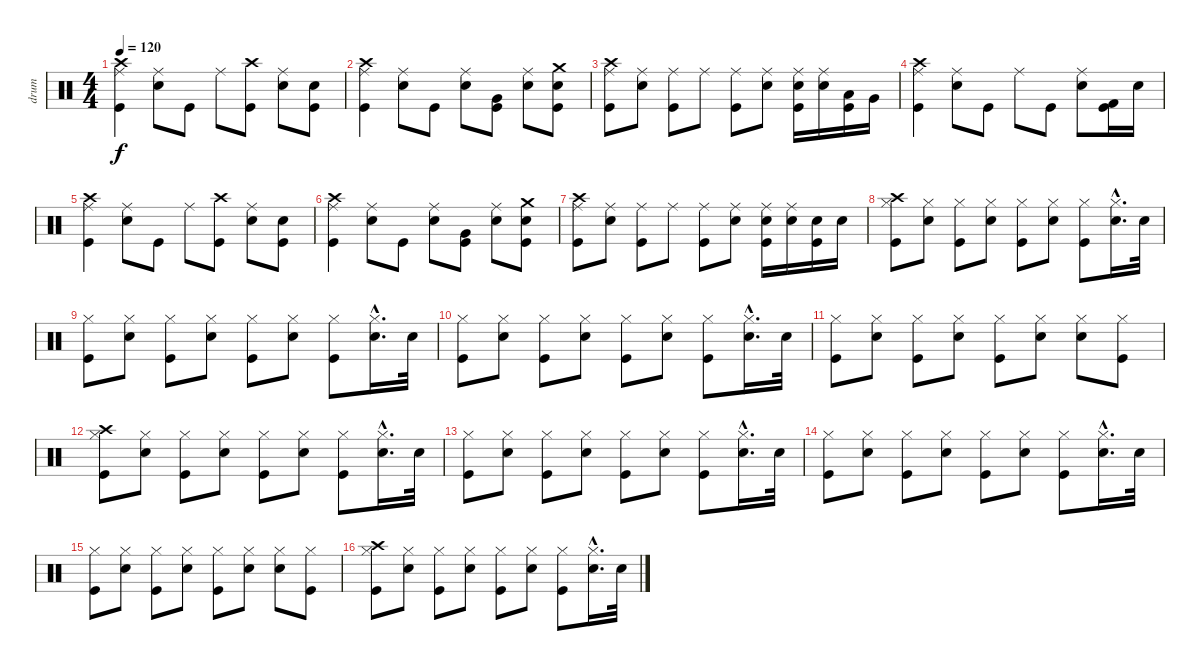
\track ("drum " "drum ") {instrument percussion}
\staff {score}
\articulation defaults
\ts (4 4)
\tempo 120
\clef neutral
\ks c
("Crash high (hit)" "Ride (middle)" "Kick (hit)").4{dy f} ("Ride (middle)" "Snare (hit) 2").8 "Kick (hit)".8 "Ride (middle)".8 ("Crash high (hit)" "Kick (hit)").8 ("Ride (middle)" "Snare (hit) 2").8 ("Snare (hit) 2" "Kick (hit)").8 |
("Crash high (hit)" "Ride (middle)" "Kick (hit)").4 ("Ride (middle)" "Snare (hit) 2").8 "Kick (hit)".8 ("Ride (middle)" "Snare (hit) 2").8 ("Very Low Tom (hit)" "Kick (hit)").8 ("Ride (middle)" "Snare (hit) 2").8 ("Crash medium (hit)" "Snare (hit) 2" "Kick (hit)").8 |
("Crash high (hit)" "Ride (middle)" "Kick (hit)").8 ("Ride (middle)" "Snare (hit) 2").8 ("Ride (middle)" "Kick (hit)").8 "Ride (middle)".8 ("Ride (middle)" "Kick (hit)").8 ("Ride (middle)" "Snare (hit) 2").8 ("Ride (middle)" "Snare (hit) 2" "Kick (hit)").16 ("Ride (middle)" "Snare (hit) 2").16 ("Low Tom (hit)" "Kick (hit)").16 "Very Low Tom (hit)".16 |
("Crash high (hit)" "Ride (middle)" "Kick (hit)").4 ("Ride (middle)" "Snare (hit) 2").8 "Kick (hit)".8 "Ride (middle)".8 "Kick (hit)".8 ("Ride (middle)" "Snare (hit) 2").8 ("Kick (hit) 2" "Kick (hit)").16 "Snare (hit) 2".16 |
("Crash high (hit)" "Ride (middle)" "Kick (hit)").4 ("Ride (middle)" "Snare (hit) 2").8 "Kick (hit)".8 "Ride (middle)".8 ("Crash high (hit)" "Kick (hit)").8 ("Ride (middle)" "Snare (hit) 2").8 ("Snare (hit) 2" "Kick (hit)").8 |
("Crash high (hit)" "Ride (middle)" "Kick (hit)").4 ("Ride (middle)" "Snare (hit) 2").8 "Kick (hit)".8 ("Ride (middle)" "Snare (hit) 2").8 ("Very Low Tom (hit)" "Kick (hit)").8 ("Ride (middle)" "Snare (hit) 2").8 ("Crash medium (hit)" "Snare (hit) 2" "Kick (hit)").8 |
("Crash high (hit)" "Ride (middle)" "Kick (hit)").8 ("Ride (middle)" "Snare (hit) 2").8 ("Ride (middle)" "Kick (hit)").8 "Ride (middle)".8 ("Ride (middle)" "Kick (hit)").8 ("Ride (middle)" "Snare (hit) 2").8 ("Ride (middle)" "Snare (hit) 2" "Kick (hit)").16 ("Ride (middle)" "Snare (hit) 2").16 ("Snare (hit) 2" "Kick (hit)").16 "Snare (hit) 2".16 |
("Crash high (hit)" "Hi-Hat (closed)" "Kick (hit)").8 ("Hi-Hat (closed)" "Snare (hit) 2").8 ("Hi-Hat (closed)" "Kick (hit)").8 ("Hi-Hat (closed)" "Snare (hit) 2").8 ("Hi-Hat (closed)" "Kick (hit)").8 ("Hi-Hat (closed)" "Snare (hit) 2").8 ("Hi-Hat (closed)" "Kick (hit)").8 ("Hi-Hat (closed)"{hac} "Snare (hit) 2"{hac}).16{d} "Snare (hit) 2".32 |
("Hi-Hat (closed)" "Kick (hit)").8 ("Hi-Hat (closed)" "Snare (hit) 2").8 ("Hi-Hat (closed)" "Kick (hit)").8 ("Hi-Hat (closed)" "Snare (hit) 2").8 ("Hi-Hat (closed)" "Kick (hit)").8 ("Hi-Hat (closed)" "Snare (hit) 2").8 ("Hi-Hat (closed)" "Kick (hit)").8 ("Hi-Hat (closed)"{hac} "Snare (hit) 2"{hac}).16{d} "Snare (hit) 2".32 |
("Hi-Hat (closed)" "Kick (hit)").8 ("Hi-Hat (closed)" "Snare (hit) 2").8 ("Hi-Hat (closed)" "Kick (hit)").8 ("Hi-Hat (closed)" "Snare (hit) 2").8 ("Hi-Hat (closed)" "Kick (hit)").8 ("Hi-Hat (closed)" "Snare (hit) 2").8 ("Hi-Hat (closed)" "Kick (hit)").8 ("Hi-Hat (closed)"{hac} "Snare (hit) 2"{hac}).16{d} "Snare (hit) 2".32 |
("Hi-Hat (closed)" "Kick (hit)").8 ("Hi-Hat (closed)" "Snare (hit) 2").8 ("Hi-Hat (closed)" "Kick (hit)").8 ("Hi-Hat (closed)" "Snare (hit) 2").8 ("Hi-Hat (closed)" "Kick (hit)").8 ("Hi-Hat (closed)" "Snare (hit) 2").8 ("Hi-Hat (closed)" "Snare (hit) 2").8 ("Hi-Hat (closed)" "Kick (hit)").8 |
("Crash high (hit)" "Hi-Hat (closed)" "Kick (hit)").8 ("Hi-Hat (closed)" "Snare (hit) 2").8 ("Hi-Hat (closed)" "Kick (hit)").8 ("Hi-Hat (closed)" "Snare (hit) 2").8 ("Hi-Hat (closed)" "Kick (hit)").8 ("Hi-Hat (closed)" "Snare (hit) 2").8 ("Hi-Hat (closed)" "Kick (hit)").8 ("Hi-Hat (closed)"{hac} "Snare (hit) 2"{hac}).16{d} "Snare (hit) 2".32 |
("Hi-Hat (closed)" "Kick (hit)").8 ("Hi-Hat (closed)" "Snare (hit) 2").8 ("Hi-Hat (closed)" "Kick (hit)").8 ("Hi-Hat (closed)" "Snare (hit) 2").8 ("Hi-Hat (closed)" "Kick (hit)").8 ("Hi-Hat (closed)" "Snare (hit) 2").8 ("Hi-Hat (closed)" "Kick (hit)").8 ("Hi-Hat (closed)"{hac} "Snare (hit) 2"{hac}).16{d} "Snare (hit) 2".32 |
("Hi-Hat (closed)" "Kick (hit)").8 ("Hi-Hat (closed)" "Snare (hit) 2").8 ("Hi-Hat (closed)" "Kick (hit)").8 ("Hi-Hat (closed)" "Snare (hit) 2").8 ("Hi-Hat (closed)" "Kick (hit)").8 ("Hi-Hat (closed)" "Snare (hit) 2").8 ("Hi-Hat (closed)" "Kick (hit)").8 ("Hi-Hat (closed)"{hac} "Snare (hit) 2"{hac}).16{d} "Snare (hit) 2".32 |
("Hi-Hat (closed)" "Kick (hit)").8 ("Hi-Hat (closed)" "Snare (hit) 2").8 ("Hi-Hat (closed)" "Kick (hit)").8 ("Hi-Hat (closed)" "Snare (hit) 2").8 ("Hi-Hat (closed)" "Kick (hit)").8 ("Hi-Hat (closed)" "Snare (hit) 2").8 ("Hi-Hat (closed)" "Snare (hit) 2").8 ("Hi-Hat (closed)" "Kick (hit)").8 |
("Crash high (hit)" "Hi-Hat (closed)" "Kick (hit)").8 ("Hi-Hat (closed)" "Snare (hit) 2").8 ("Hi-Hat (closed)" "Kick (hit)").8 ("Hi-Hat (closed)" "Snare (hit) 2").8 ("Hi-Hat (closed)" "Kick (hit)").8 ("Hi-Hat (closed)" "Snare (hit) 2").8 ("Hi-Hat (closed)" "Kick (hit)").8 ("Hi-Hat (closed)"{hac} "Snare (hit) 2"{hac}).16{d} "Snare (hit) 2".32
